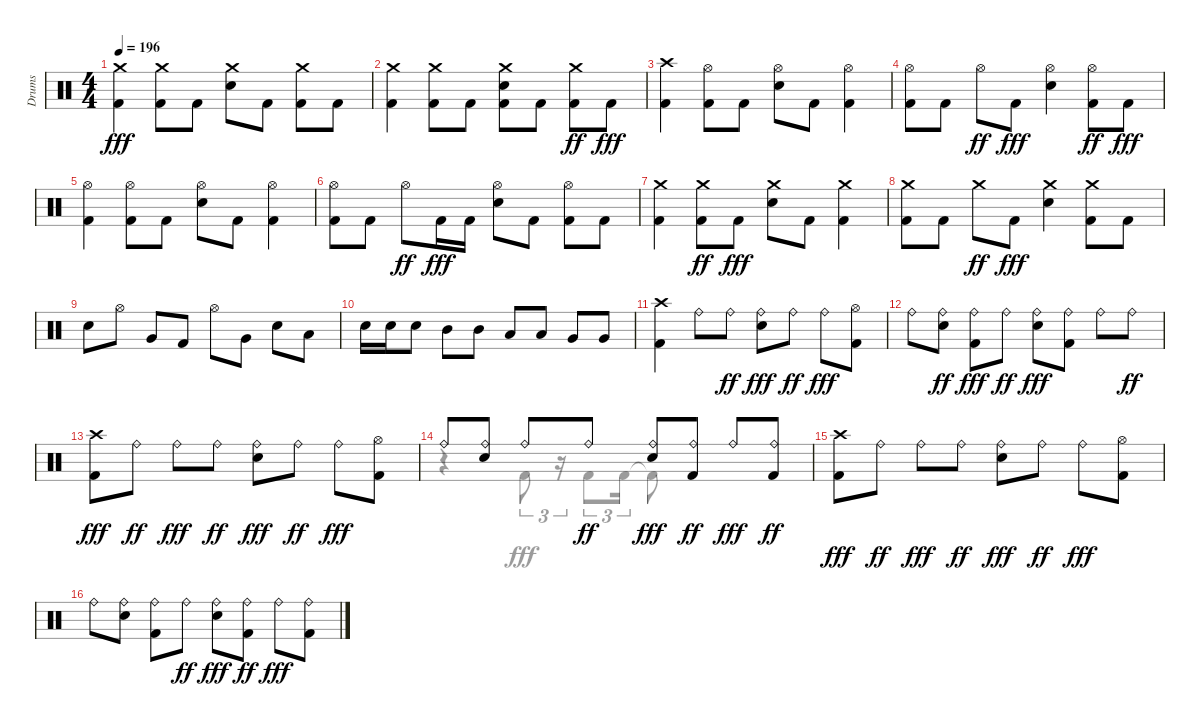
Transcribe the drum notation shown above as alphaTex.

\track ("Drums" "Drums") {instrument percussion}
\staff {score}
\articulation defaults
\voice
\ts (4 4)
\tempo 196
\clef neutral
\ks aminor
("Crash medium (hit)" "Kick (hit) 2").4{dy fff} ("Kick (hit) 2" "Crash medium (hit)").8 "Kick (hit) 2".8 ("Snare (hit) 2" "Crash medium (hit)").8 "Kick (hit) 2".8 ("Crash medium (hit)" "Kick (hit) 2").8 "Kick (hit) 2".8 |
("Kick (hit) 2" "Crash medium (hit)").4 ("Crash medium (hit)" "Kick (hit) 2").8 "Kick (hit) 2".8 ("Crash medium (hit)" "Snare (hit) 2" "Kick (hit) 2").8 "Kick (hit) 2".8 ("Kick (hit) 2" "Crash medium (hit)").8{dy ff} "Kick (hit) 2".8{dy fff} |
("Crash high (hit)" "Kick (hit) 2").4 ("Kick (hit) 2" "Hi-Hat (open)").8 "Kick (hit) 2".8 ("Snare (hit) 2" "Hi-Hat (open)").8 "Kick (hit) 2".8 ("Kick (hit) 2" "Hi-Hat (open)").4 |
("Kick (hit) 2" "Hi-Hat (open)").8 "Kick (hit) 2".8 "Hi-Hat (open)".8{dy ff} "Kick (hit) 2".8{dy fff} ("Snare (hit) 2" "Hi-Hat (open)").4 ("Kick (hit) 2" "Hi-Hat (open)").8{dy ff} "Kick (hit) 2".8{dy fff} |
("Kick (hit) 2" "Hi-Hat (open)").4 ("Kick (hit) 2" "Hi-Hat (open)").8 "Kick (hit) 2".8 ("Snare (hit) 2" "Hi-Hat (open)").8 "Kick (hit) 2".8 ("Kick (hit) 2" "Hi-Hat (open)").4 |
("Hi-Hat (open)" "Kick (hit) 2").8 "Kick (hit) 2".8 "Hi-Hat (open)".8{dy ff} "Kick (hit) 2".16{dy fff} "Kick (hit) 2".16 ("Snare (hit) 2" "Hi-Hat (open)").8 "Kick (hit) 2".8 ("Hi-Hat (open)" "Kick (hit) 2").8 "Kick (hit) 2".8 |
("Kick (hit) 2" "Crash medium (hit)").4 ("Kick (hit) 2" "Crash medium (hit)").8{dy ff} "Kick (hit) 2".8{dy fff} ("Snare (hit) 2" "Crash medium (hit)").8 "Kick (hit) 2".8 ("Crash medium (hit)" "Kick (hit) 2").4 |
("Crash medium (hit)" "Kick (hit) 2").8 "Kick (hit) 2".8 "Crash medium (hit)".8{dy ff} "Kick (hit) 2".8{dy fff} ("Crash medium (hit)" "Snare (hit) 2").4 ("Kick (hit) 2" "Crash medium (hit)").8 "Kick (hit) 2".8 |
"Snare (hit) 2".8 "Hi-Hat (open)".8 "Very Low Tom (hit)".8 "Kick (hit) 2".8 "Hi-Hat (open)".8 "Very Low Tom (hit)".8 "Snare (hit) 2".8 "Low Floor Tom (hit)".8 |
"Snare (hit) 2".16 "Snare (hit) 2".16 "Snare (hit) 2".8 "Mid Tom (hit)".8 "Mid Tom (hit)".8 "Low Tom (hit)".8 "Low Tom (hit)".8 "Very Low Tom (hit)".8 "Very Low Tom (hit)".8 |
("Kick (hit) 2" "Crash high (hit)").4 "Ride (bell)".8 "Ride (bell)".8{dy ff} ("Snare (hit) 2" "Ride (bell)").8{dy fff} "Ride (bell)".8{dy ff} "Ride (bell)".8{dy fff} ("Hi-Hat (open)" "Kick (hit) 2").8 |
"Ride (bell)".8 ("Ride (bell)" "Snare (hit) 2").8{dy ff} ("Ride (bell)" "Kick (hit) 2").8{dy fff} "Ride (bell)".8{dy ff} ("Snare (hit) 2" "Ride (bell)").8{dy fff} ("Kick (hit) 2" "Ride (bell)").8 "Ride (bell)".8 "Ride (bell)".8{dy ff} |
("Kick (hit) 2" "Crash high (hit)").8{dy fff} "Ride (bell)".8{dy ff} "Ride (bell)".8{dy fff} "Ride (bell)".8{dy ff} ("Ride (bell)" "Snare (hit) 2").8{dy fff} "Ride (bell)".8{dy ff} "Ride (bell)".8{dy fff} ("Hi-Hat (open)" "Kick (hit) 2").8 |
"Ride (bell)".8 ("Ride (bell)" "Snare (hit) 2").8 "Ride (bell)".8 "Ride (bell)".8{dy ff} ("Ride (bell)" "Snare (hit) 2").8{dy fff} ("Ride (bell)" "Kick (hit) 2").8{dy ff} "Ride (bell)".8{dy fff} ("Kick (hit) 2" "Ride (bell)").8{dy ff} |
("Kick (hit) 2" "Crash high (hit)").8{dy fff} "Ride (bell)".8{dy ff} "Ride (bell)".8{dy fff} "Ride (bell)".8{dy ff} ("Snare (hit) 2" "Ride (bell)").8{dy fff} "Ride (bell)".8{dy ff} "Ride (bell)".8{dy fff} ("Kick (hit) 2" "Hi-Hat (open)").8 |
"Ride (bell)".8 ("Snare (hit) 2" "Ride (bell)").8 ("Kick (hit) 2" "Ride (bell)").8 "Ride (bell)".8{dy ff} ("Ride (bell)" "Snare (hit) 2").8{dy fff} ("Ride (bell)" "Kick (hit) 2").8{dy ff} "Ride (bell)".8{dy fff} ("Kick (hit) 2" "Ride (bell)").8
\voice
\clef neutral
\ottava regular
\simile none
\ks aminor
|
|
|
|
|
|
|
|
|
|
|
|
|
r.4 "Kick (hit) 2".8{tu (3 2)} r.16{tu (3 2)} "Kick (hit) 2".8{tu (3 2)} "Kick (hit) 2".16{tu (3 2)} "Kick (hit) 2"{t}.8 |
|
